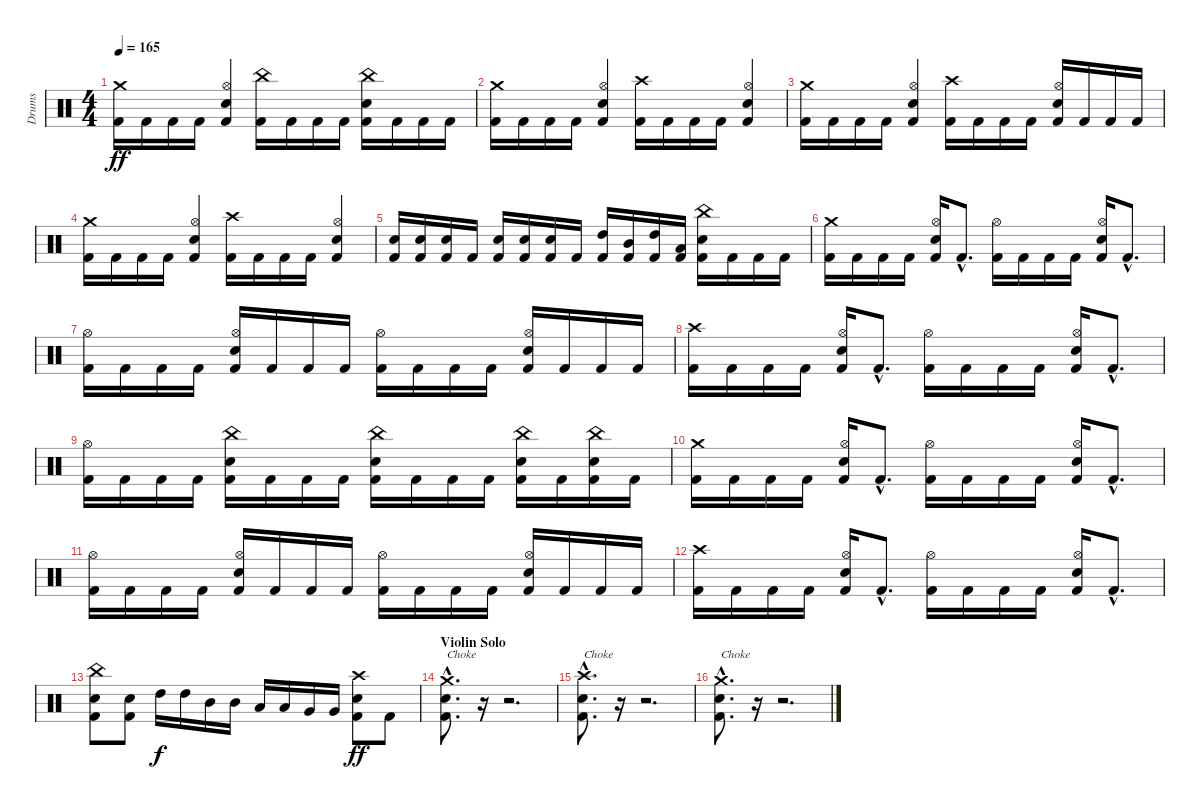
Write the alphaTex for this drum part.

\track ("Drums" "Drums") {instrument percussion}
\staff {score}
\articulation defaults
\ts (4 4)
\tempo 165
\clef neutral
\ks c
("Crash medium (hit)" "Kick (hit) 2").16{dy ff} "Kick (hit) 2".16 "Kick (hit) 2".16 "Kick (hit) 2".16 ("Hi-Hat (open)" "Electric Snare (hit)" "Kick (hit) 2").4 ("China (hit)" "Kick (hit) 2").16 "Kick (hit) 2".16 "Kick (hit) 2".16 "Kick (hit) 2".16 ("China (hit)" "Electric Snare (hit)" "Kick (hit) 2").16 "Kick (hit) 2".16 "Kick (hit) 2".16 "Kick (hit) 2".16 |
("Crash medium (hit)" "Kick (hit) 2").16 "Kick (hit) 2".16 "Kick (hit) 2".16 "Kick (hit) 2".16 ("Hi-Hat (open)" "Electric Snare (hit)" "Kick (hit) 2").4 ("Crash high (hit)" "Kick (hit) 2").16 "Kick (hit) 2".16 "Kick (hit) 2".16 "Kick (hit) 2".16 ("Hi-Hat (open)" "Electric Snare (hit)" "Kick (hit) 2").4 |
("Crash medium (hit)" "Kick (hit) 2").16 "Kick (hit) 2".16 "Kick (hit) 2".16 "Kick (hit) 2".16 ("Hi-Hat (open)" "Electric Snare (hit)" "Kick (hit) 2").4 ("Crash high (hit)" "Kick (hit) 2").16 "Kick (hit) 2".16 "Kick (hit) 2".16 "Kick (hit) 2".16 ("Hi-Hat (open)" "Electric Snare (hit)" "Kick (hit) 2").16 "Kick (hit) 2".16 "Kick (hit) 2".16 "Kick (hit) 2".16 |
("Crash medium (hit)" "Kick (hit) 2").16 "Kick (hit) 2".16 "Kick (hit) 2".16 "Kick (hit) 2".16 ("Hi-Hat (open)" "Electric Snare (hit)" "Kick (hit) 2").4 ("Crash high (hit)" "Kick (hit) 2").16 "Kick (hit) 2".16 "Kick (hit) 2".16 "Kick (hit) 2".16 ("Hi-Hat (open)" "Electric Snare (hit)" "Kick (hit) 2").4 |
("Electric Snare (hit)" "Kick (hit) 2").16 ("Electric Snare (hit)" "Kick (hit) 2").16 ("Electric Snare (hit)" "Kick (hit) 2").16 "Kick (hit) 2".16 ("Electric Snare (hit)" "Kick (hit) 2").16 ("Electric Snare (hit)" "Kick (hit) 2").16 ("Electric Snare (hit)" "Kick (hit) 2").16 "Kick (hit) 2".16 ("High Tom (hit)" "Kick (hit) 2").16 ("Mid Tom (hit)" "Kick (hit) 2").16 ("High Tom (hit)" "Kick (hit) 2").16 ("Low Tom (hit)" "Kick (hit) 2").16 ("China (hit)" "Electric Snare (hit)" "Kick (hit) 2").16 "Kick (hit) 2".16 "Kick (hit) 2".16 "Kick (hit) 2".16 |
("Crash medium (hit)" "Kick (hit) 2").16 "Kick (hit) 2".16 "Kick (hit) 2".16 "Kick (hit) 2".16 ("Hi-Hat (open)" "Electric Snare (hit)" "Kick (hit) 2").16 "Kick (hit) 2"{hac}.8{d} ("Hi-Hat (open)" "Kick (hit) 2").16 "Kick (hit) 2".16 "Kick (hit) 2".16 "Kick (hit) 2".16 ("Hi-Hat (open)" "Electric Snare (hit)" "Kick (hit) 2").16 "Kick (hit) 2"{hac}.8{d} |
("Hi-Hat (open)" "Kick (hit) 2").16 "Kick (hit) 2".16 "Kick (hit) 2".16 "Kick (hit) 2".16 ("Hi-Hat (open)" "Electric Snare (hit)" "Kick (hit) 2").16 "Kick (hit) 2".16 "Kick (hit) 2".16 "Kick (hit) 2".16 ("Hi-Hat (open)" "Kick (hit) 2").16 "Kick (hit) 2".16 "Kick (hit) 2".16 "Kick (hit) 2".16 ("Hi-Hat (open)" "Electric Snare (hit)" "Kick (hit) 2").16 "Kick (hit) 2".16 "Kick (hit) 2".16 "Kick (hit) 2".16 |
("Crash high (hit)" "Kick (hit) 2").16 "Kick (hit) 2".16 "Kick (hit) 2".16 "Kick (hit) 2".16 ("Hi-Hat (open)" "Electric Snare (hit)" "Kick (hit) 2").16 "Kick (hit) 2"{hac}.8{d} ("Hi-Hat (open)" "Kick (hit) 2").16 "Kick (hit) 2".16 "Kick (hit) 2".16 "Kick (hit) 2".16 ("Hi-Hat (open)" "Electric Snare (hit)" "Kick (hit) 2").16 "Kick (hit) 2"{hac}.8{d} |
("Hi-Hat (open)" "Kick (hit) 2").16 "Kick (hit) 2".16 "Kick (hit) 2".16 "Kick (hit) 2".16 ("China (hit)" "Electric Snare (hit)" "Kick (hit) 2").16 "Kick (hit) 2".16 "Kick (hit) 2".16 "Kick (hit) 2".16 ("China (hit)" "Electric Snare (hit)" "Kick (hit) 2").16 "Kick (hit) 2".16 "Kick (hit) 2".16 "Kick (hit) 2".16 ("China (hit)" "Electric Snare (hit)" "Kick (hit) 2").16 "Kick (hit) 2".16 ("China (hit)" "Electric Snare (hit)" "Kick (hit) 2").16 "Kick (hit) 2".16 |
("Crash medium (hit)" "Kick (hit) 2").16 "Kick (hit) 2".16 "Kick (hit) 2".16 "Kick (hit) 2".16 ("Hi-Hat (open)" "Electric Snare (hit)" "Kick (hit) 2").16 "Kick (hit) 2"{hac}.8{d} ("Hi-Hat (open)" "Kick (hit) 2").16 "Kick (hit) 2".16 "Kick (hit) 2".16 "Kick (hit) 2".16 ("Hi-Hat (open)" "Electric Snare (hit)" "Kick (hit) 2").16 "Kick (hit) 2"{hac}.8{d} |
("Hi-Hat (open)" "Kick (hit) 2").16 "Kick (hit) 2".16 "Kick (hit) 2".16 "Kick (hit) 2".16 ("Hi-Hat (open)" "Electric Snare (hit)" "Kick (hit) 2").16 "Kick (hit) 2".16 "Kick (hit) 2".16 "Kick (hit) 2".16 ("Hi-Hat (open)" "Kick (hit) 2").16 "Kick (hit) 2".16 "Kick (hit) 2".16 "Kick (hit) 2".16 ("Hi-Hat (open)" "Electric Snare (hit)" "Kick (hit) 2").16 "Kick (hit) 2".16 "Kick (hit) 2".16 "Kick (hit) 2".16 |
("Crash high (hit)" "Kick (hit) 2").16 "Kick (hit) 2".16 "Kick (hit) 2".16 "Kick (hit) 2".16 ("Hi-Hat (open)" "Electric Snare (hit)" "Kick (hit) 2").16 "Kick (hit) 2"{hac}.8{d} ("Hi-Hat (open)" "Kick (hit) 2").16 "Kick (hit) 2".16 "Kick (hit) 2".16 "Kick (hit) 2".16 ("Hi-Hat (open)" "Electric Snare (hit)" "Kick (hit) 2").16 "Kick (hit) 2"{hac}.8{d} |
("China (hit)" "Electric Snare (hit)" "Kick (hit) 2").8 ("Electric Snare (hit)" "Kick (hit) 2").8 "High Tom (hit)".16{dy f} "High Tom (hit)".16 "Mid Tom (hit)".16 "Mid Tom (hit)".16 "Low Tom (hit)".16 "Low Tom (hit)".16 "Very Low Tom (hit)".16 "Very Low Tom (hit)".16 ("Crash high (hit)" "Electric Snare (hit)" "Kick (hit) 2").8{dy ff} "Kick (hit) 2".8 |
\section ("" "Violin Solo")
("Crash medium (hit)"{hac} "Electric Snare (hit)"{hac} "Kick (hit) 2"{hac}).8{d txt "Choke"} r.16{volume 0} r.2{d} |
("Crash high (hit)"{hac} "Electric Snare (hit)"{hac} "Kick (hit) 2"{hac}).8{d txt "Choke" volume 15} r.16{volume 0} r.2{d} |
("Crash medium (hit)"{hac} "Electric Snare (hit)"{hac} "Kick (hit) 2"{hac}).8{d txt "Choke" volume 15} r.16{volume 0} r.2{d}
